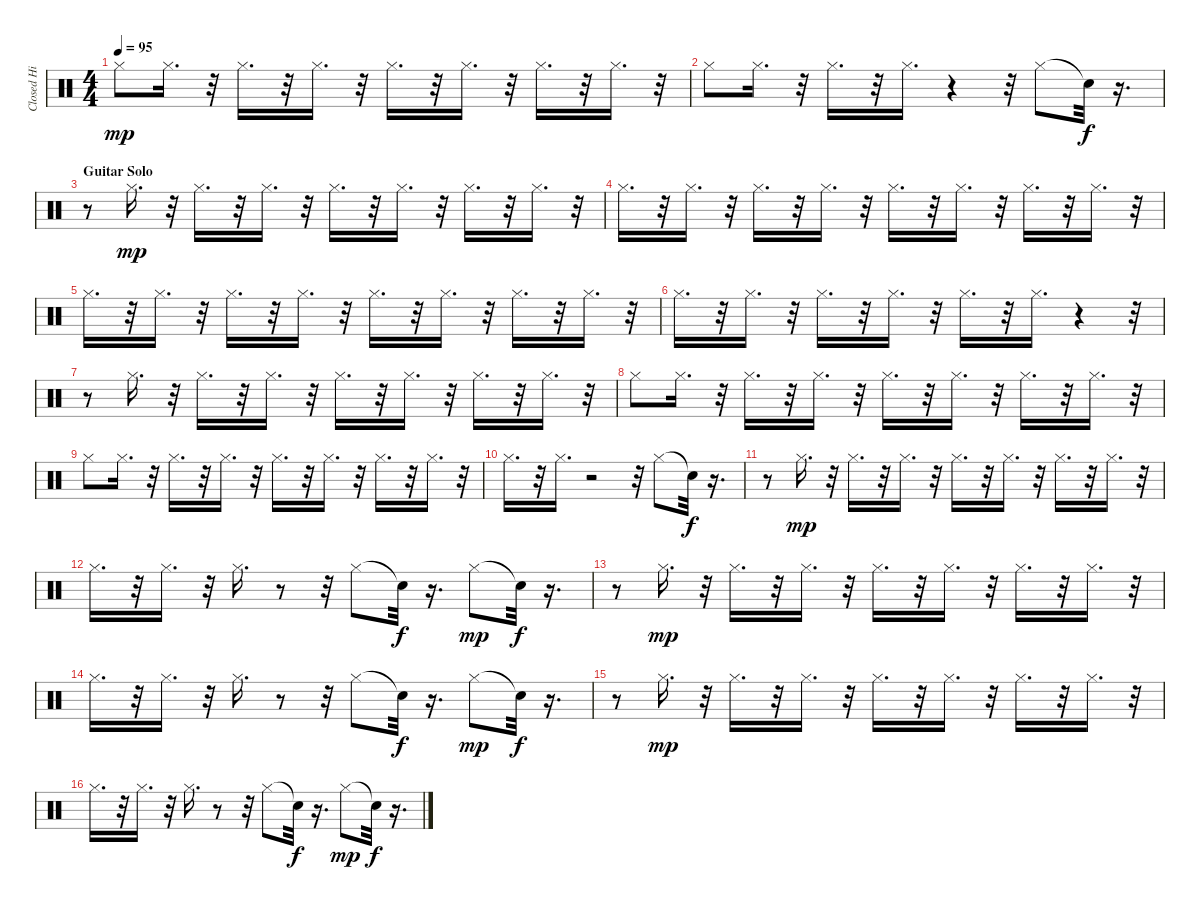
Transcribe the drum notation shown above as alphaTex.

\track ("Closed Hi Hat" "Closed Hi ") {instrument percussion}
\staff {score}
\articulation defaults
\ts (4 4)
\tempo 95
\clef neutral
\ks c "Hi-Hat (closed)".8{dy mp} "Hi-Hat (closed)".16{d}
r.32 "Hi-Hat (closed)".16{d} r.32 "Hi-Hat (closed)".16{d} r.32 "Hi-Hat (closed)".16{d} r.32 "Hi-Hat (closed)".16{d} r.32 "Hi-Hat (closed)".16{d} r.32 "Hi-Hat (closed)".16{d} r.32 |
"Hi-Hat (closed)".8 "Hi-Hat (closed)".16{d} r.32 "Hi-Hat (closed)".16{d} r.32 "Hi-Hat (closed)".16{d} r.4 r.32 "Hi-Hat (closed)".8 "Snare (hit)"{t}.32{dy f} r.16{d} |
\section ("" "Guitar Solo")
r.8 "Hi-Hat (closed)".16{d dy mp} r.32 "Hi-Hat (closed)".16{d} r.32 "Hi-Hat (closed)".16{d} r.32 "Hi-Hat (closed)".16{d} r.32 "Hi-Hat (closed)".16{d} r.32 "Hi-Hat (closed)".16{d} r.32 "Hi-Hat (closed)".16{d} r.32 |
"Hi-Hat (closed)".16{d} r.32 "Hi-Hat (closed)".16{d} r.32 "Hi-Hat (closed)".16{d} r.32 "Hi-Hat (closed)".16{d} r.32 "Hi-Hat (closed)".16{d} r.32 "Hi-Hat (closed)".16{d} r.32 "Hi-Hat (closed)".16{d} r.32 "Hi-Hat (closed)".16{d} r.32 |
"Hi-Hat (closed)".16{d} r.32 "Hi-Hat (closed)".16{d} r.32 "Hi-Hat (closed)".16{d} r.32 "Hi-Hat (closed)".16{d} r.32 "Hi-Hat (closed)".16{d} r.32 "Hi-Hat (closed)".16{d} r.32 "Hi-Hat (closed)".16{d} r.32 "Hi-Hat (closed)".16{d} r.32 |
"Hi-Hat (closed)".16{d} r.32 "Hi-Hat (closed)".16{d} r.32 "Hi-Hat (closed)".16{d} r.32 "Hi-Hat (closed)".16{d} r.32 "Hi-Hat (closed)".16{d} r.32 "Hi-Hat (closed)".16{d} r.4 r.32 |
r.8 "Hi-Hat (closed)".16{d} r.32 "Hi-Hat (closed)".16{d} r.32 "Hi-Hat (closed)".16{d} r.32 "Hi-Hat (closed)".16{d} r.32 "Hi-Hat (closed)".16{d} r.32 "Hi-Hat (closed)".16{d} r.32 "Hi-Hat (closed)".16{d} r.32 |
"Hi-Hat (closed)".8 "Hi-Hat (closed)".16{d} r.32 "Hi-Hat (closed)".16{d} r.32 "Hi-Hat (closed)".16{d} r.32 "Hi-Hat (closed)".16{d} r.32 "Hi-Hat (closed)".16{d} r.32 "Hi-Hat (closed)".16{d} r.32 "Hi-Hat (closed)".16{d} r.32 |
"Hi-Hat (closed)".8 "Hi-Hat (closed)".16{d} r.32 "Hi-Hat (closed)".16{d} r.32 "Hi-Hat (closed)".16{d} r.32 "Hi-Hat (closed)".16{d} r.32 "Hi-Hat (closed)".16{d} r.32 "Hi-Hat (closed)".16{d} r.32 "Hi-Hat (closed)".16{d} r.32 |
"Hi-Hat (closed)".16{d} r.32 "Hi-Hat (closed)".16{d} r.2 r.32 "Hi-Hat (closed)".8 "Snare (hit)"{t}.32{dy f} r.16{d} |
r.8 "Hi-Hat (closed)".16{d dy mp} r.32 "Hi-Hat (closed)".16{d} r.32 "Hi-Hat (closed)".16{d} r.32 "Hi-Hat (closed)".16{d} r.32 "Hi-Hat (closed)".16{d} r.32 "Hi-Hat (closed)".16{d} r.32 "Hi-Hat (closed)".16{d} r.32 |
"Hi-Hat (closed)".16{d} r.32 "Hi-Hat (closed)".16{d} r.32 "Hi-Hat (closed)".16{d} r.8 r.32 "Hi-Hat (closed)".8 "Snare (hit)"{t}.32{dy f} r.16{d} "Hi-Hat (closed)".8{dy mp} "Snare (hit)"{t}.32{dy f} r.16{d} |
r.8 "Hi-Hat (closed)".16{d dy mp} r.32 "Hi-Hat (closed)".16{d} r.32 "Hi-Hat (closed)".16{d} r.32 "Hi-Hat (closed)".16{d} r.32 "Hi-Hat (closed)".16{d} r.32 "Hi-Hat (closed)".16{d} r.32 "Hi-Hat (closed)".16{d} r.32 |
"Hi-Hat (closed)".16{d} r.32 "Hi-Hat (closed)".16{d} r.32 "Hi-Hat (closed)".16{d} r.8 r.32 "Hi-Hat (closed)".8 "Snare (hit)"{t}.32{dy f} r.16{d} "Hi-Hat (closed)".8{dy mp} "Snare (hit)"{t}.32{dy f} r.16{d} |
r.8 "Hi-Hat (closed)".16{d dy mp} r.32 "Hi-Hat (closed)".16{d} r.32 "Hi-Hat (closed)".16{d} r.32 "Hi-Hat (closed)".16{d} r.32 "Hi-Hat (closed)".16{d} r.32 "Hi-Hat (closed)".16{d} r.32 "Hi-Hat (closed)".16{d} r.32 |
"Hi-Hat (closed)".16{d} r.32 "Hi-Hat (closed)".16{d} r.32 "Hi-Hat (closed)".16{d} r.8 r.32 "Hi-Hat (closed)".8 "Snare (hit)"{t}.32{dy f} r.16{d} "Hi-Hat (closed)".8{dy mp} "Snare (hit)"{t}.32{dy f} r.16{d}
